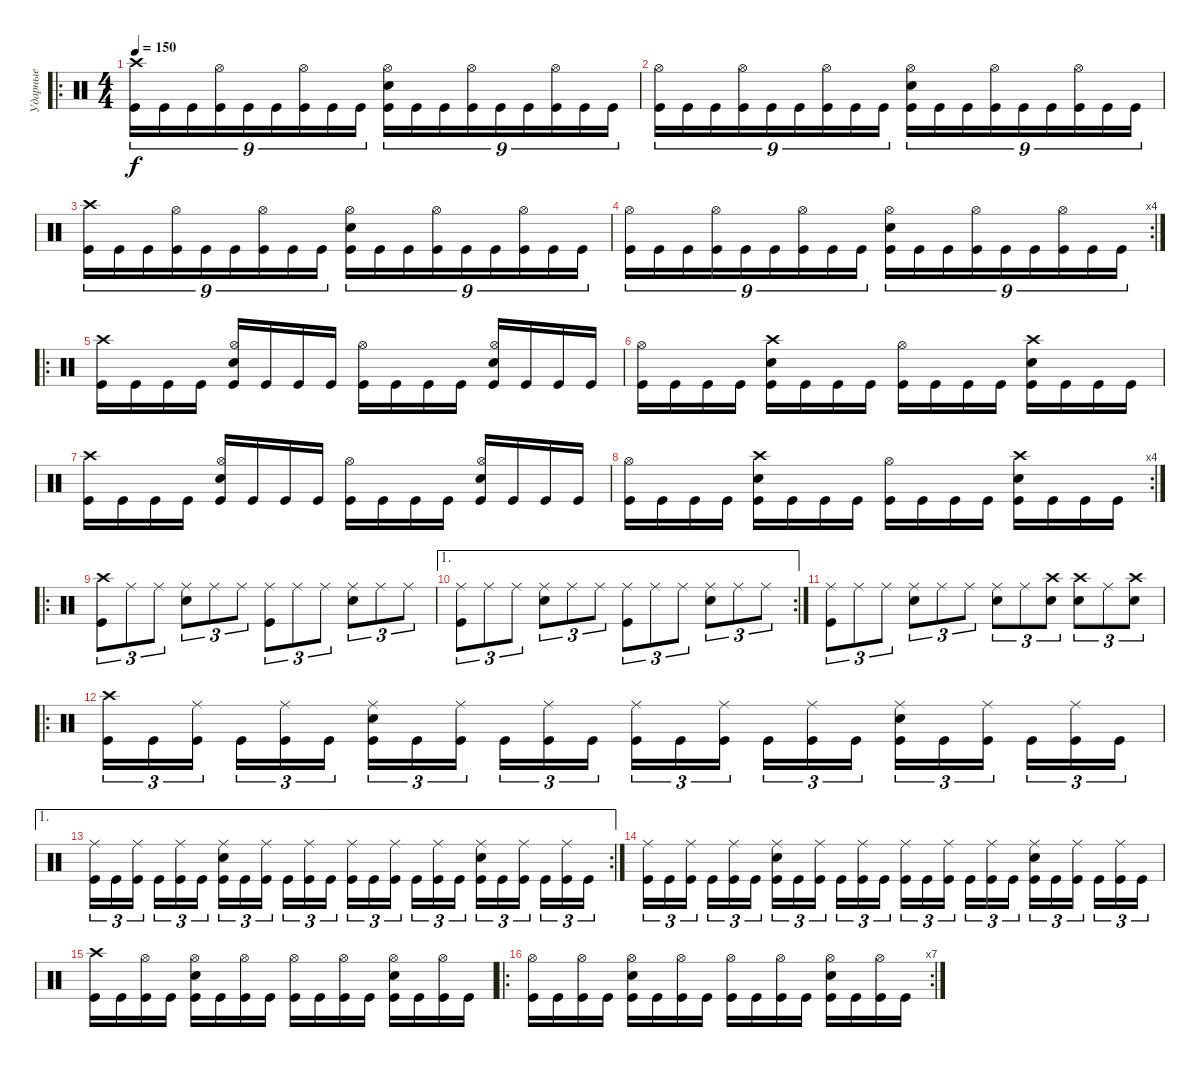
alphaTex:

\track ("Ударные" "Ударные") {instrument percussion}
\staff {score}
\articulation defaults
\ro
\ts (4 4)
\tempo 150
\clef neutral
\ks c
("Crash high (hit)" "Kick (hit)").16{tu (9 8) dy f} "Kick (hit)".16{tu (9 8)} "Kick (hit)".16{tu (9 8)} ("Hi-Hat (open)" "Kick (hit)").16{tu (9 8)} "Kick (hit)".16{tu (9 8)} "Kick (hit)".16{tu (9 8)} ("Hi-Hat (open)" "Kick (hit)").16{tu (9 8)} "Kick (hit)".16{tu (9 8)} "Kick (hit)".16{tu (9 8)} ("Snare (hit) 2" "Hi-Hat (open)" "Kick (hit)").16{tu (9 8)} "Kick (hit)".16{tu (9 8)} "Kick (hit)".16{tu (9 8)} ("Hi-Hat (open)" "Kick (hit)").16{tu (9 8)} "Kick (hit)".16{tu (9 8)} "Kick (hit)".16{tu (9 8)} ("Hi-Hat (open)" "Kick (hit)").16{tu (9 8)} "Kick (hit)".16{tu (9 8)} "Kick (hit)".16{tu (9 8)} |
("Hi-Hat (open)" "Kick (hit)").16{tu (9 8)} "Kick (hit)".16{tu (9 8)} "Kick (hit)".16{tu (9 8)} ("Hi-Hat (open)" "Kick (hit)").16{tu (9 8)} "Kick (hit)".16{tu (9 8)} "Kick (hit)".16{tu (9 8)} ("Hi-Hat (open)" "Kick (hit)").16{tu (9 8)} "Kick (hit)".16{tu (9 8)} "Kick (hit)".16{tu (9 8)} ("Snare (hit) 2" "Hi-Hat (open)" "Kick (hit)").16{tu (9 8)} "Kick (hit)".16{tu (9 8)} "Kick (hit)".16{tu (9 8)} ("Hi-Hat (open)" "Kick (hit)").16{tu (9 8)} "Kick (hit)".16{tu (9 8)} "Kick (hit)".16{tu (9 8)} ("Hi-Hat (open)" "Kick (hit)").16{tu (9 8)} "Kick (hit)".16{tu (9 8)} "Kick (hit)".16{tu (9 8)} |
("Crash high (hit)" "Kick (hit)").16{tu (9 8)} "Kick (hit)".16{tu (9 8)} "Kick (hit)".16{tu (9 8)} ("Hi-Hat (open)" "Kick (hit)").16{tu (9 8)} "Kick (hit)".16{tu (9 8)} "Kick (hit)".16{tu (9 8)} ("Hi-Hat (open)" "Kick (hit)").16{tu (9 8)} "Kick (hit)".16{tu (9 8)} "Kick (hit)".16{tu (9 8)} ("Snare (hit) 2" "Hi-Hat (open)" "Kick (hit)").16{tu (9 8)} "Kick (hit)".16{tu (9 8)} "Kick (hit)".16{tu (9 8)} ("Hi-Hat (open)" "Kick (hit)").16{tu (9 8)} "Kick (hit)".16{tu (9 8)} "Kick (hit)".16{tu (9 8)} ("Hi-Hat (open)" "Kick (hit)").16{tu (9 8)} "Kick (hit)".16{tu (9 8)} "Kick (hit)".16{tu (9 8)} |
\rc 4
("Hi-Hat (open)" "Kick (hit)").16{tu (9 8)} "Kick (hit)".16{tu (9 8)} "Kick (hit)".16{tu (9 8)} ("Hi-Hat (open)" "Kick (hit)").16{tu (9 8)} "Kick (hit)".16{tu (9 8)} "Kick (hit)".16{tu (9 8)} ("Hi-Hat (open)" "Kick (hit)").16{tu (9 8)} "Kick (hit)".16{tu (9 8)} "Kick (hit)".16{tu (9 8)} ("Snare (hit) 2" "Hi-Hat (open)" "Kick (hit)").16{tu (9 8)} "Kick (hit)".16{tu (9 8)} "Kick (hit)".16{tu (9 8)} ("Hi-Hat (open)" "Kick (hit)").16{tu (9 8)} "Kick (hit)".16{tu (9 8)} "Kick (hit)".16{tu (9 8)} ("Hi-Hat (open)" "Kick (hit)").16{tu (9 8)} "Kick (hit)".16{tu (9 8)} "Kick (hit)".16{tu (9 8)} |
\ro
("Crash high (hit)" "Kick (hit)").16 "Kick (hit)".16 "Kick (hit)".16 "Kick (hit)".16 ("Hi-Hat (open)" "Snare (hit) 2" "Kick (hit)").16 "Kick (hit)".16 "Kick (hit)".16 "Kick (hit)".16 ("Hi-Hat (open)" "Kick (hit)").16 "Kick (hit)".16 "Kick (hit)".16 "Kick (hit)".16 ("Hi-Hat (open)" "Snare (hit) 2" "Kick (hit)").16 "Kick (hit)".16 "Kick (hit)".16 "Kick (hit)".16 |
("Hi-Hat (open)" "Kick (hit)").16 "Kick (hit)".16 "Kick (hit)".16 "Kick (hit)".16 ("Crash high (hit)" "Snare (hit) 2" "Kick (hit)").16 "Kick (hit)".16 "Kick (hit)".16 "Kick (hit)".16 ("Hi-Hat (open)" "Kick (hit)").16 "Kick (hit)".16 "Kick (hit)".16 "Kick (hit)".16 ("Crash high (hit)" "Snare (hit) 2" "Kick (hit)").16 "Kick (hit)".16 "Kick (hit)".16 "Kick (hit)".16 |
("Crash high (hit)" "Kick (hit)").16 "Kick (hit)".16 "Kick (hit)".16 "Kick (hit)".16 ("Hi-Hat (open)" "Snare (hit) 2" "Kick (hit)").16 "Kick (hit)".16 "Kick (hit)".16 "Kick (hit)".16 ("Hi-Hat (open)" "Kick (hit)").16 "Kick (hit)".16 "Kick (hit)".16 "Kick (hit)".16 ("Hi-Hat (open)" "Snare (hit) 2" "Kick (hit)").16 "Kick (hit)".16 "Kick (hit)".16 "Kick (hit)".16 |
\rc 4
("Hi-Hat (open)" "Kick (hit)").16 "Kick (hit)".16 "Kick (hit)".16 "Kick (hit)".16 ("Crash high (hit)" "Snare (hit) 2" "Kick (hit)").16 "Kick (hit)".16 "Kick (hit)".16 "Kick (hit)".16 ("Hi-Hat (open)" "Kick (hit)").16 "Kick (hit)".16 "Kick (hit)".16 "Kick (hit)".16 ("Crash high (hit)" "Snare (hit) 2" "Kick (hit)").16 "Kick (hit)".16 "Kick (hit)".16 "Kick (hit)".16 |
\ro
("Crash high (hit)" "Kick (hit)").8{tu (3 2)} "Ride (middle)".8{tu (3 2)} "Ride (middle)".8{tu (3 2)} ("Ride (middle)" "Snare (hit) 2").8{tu (3 2)} "Ride (middle)".8{tu (3 2)} "Ride (middle)".8{tu (3 2)} ("Ride (middle)" "Kick (hit)").8{tu (3 2)} "Ride (middle)".8{tu (3 2)} "Ride (middle)".8{tu (3 2)} ("Ride (middle)" "Snare (hit) 2").8{tu (3 2)} "Ride (middle)".8{tu (3 2)} "Ride (middle)".8{tu (3 2)} |
\ae 1
\rc 2
("Ride (middle)" "Kick (hit)").8{tu (3 2)} "Ride (middle)".8{tu (3 2)} "Ride (middle)".8{tu (3 2)} ("Ride (middle)" "Snare (hit) 2").8{tu (3 2)} "Ride (middle)".8{tu (3 2)} "Ride (middle)".8{tu (3 2)} ("Ride (middle)" "Kick (hit)").8{tu (3 2)} "Ride (middle)".8{tu (3 2)} "Ride (middle)".8{tu (3 2)} ("Ride (middle)" "Snare (hit) 2").8{tu (3 2)} "Ride (middle)".8{tu (3 2)} "Ride (middle)".8{tu (3 2)} |
("Ride (middle)" "Kick (hit)").8{tu (3 2)} "Ride (middle)".8{tu (3 2)} "Ride (middle)".8{tu (3 2)} ("Ride (middle)" "Snare (hit) 2").8{tu (3 2)} "Ride (middle)".8{tu (3 2)} "Ride (middle)".8{tu (3 2)} ("Ride (middle)" "Snare (hit) 2").8{tu (3 2)} "Ride (middle)".8{tu (3 2)} ("Crash high (hit)" "Snare (hit) 2").8{tu (3 2)} ("Crash high (hit)" "Snare (hit) 2").8{tu (3 2)} "Ride (middle)".8{tu (3 2)} ("Crash high (hit)" "Snare (hit) 2").8{tu (3 2)} |
\ro
("Crash high (hit)" "Kick (hit)").16{tu (3 2)} "Kick (hit)".16{tu (3 2)} ("Ride (middle)" "Kick (hit)").16{tu (3 2) beam splitsecondary} "Kick (hit)".16{tu (3 2)} ("Ride (middle)" "Kick (hit)").16{tu (3 2)} "Kick (hit)".16{tu (3 2)} ("Snare (hit) 2" "Ride (middle)" "Kick (hit)").16{tu (3 2)} "Kick (hit)".16{tu (3 2)} ("Ride (middle)" "Kick (hit)").16{tu (3 2) beam splitsecondary} "Kick (hit)".16{tu (3 2)} ("Ride (middle)" "Kick (hit)").16{tu (3 2)} "Kick (hit)".16{tu (3 2)} ("Ride (middle)" "Kick (hit)").16{tu (3 2)} "Kick (hit)".16{tu (3 2)} ("Ride (middle)" "Kick (hit)").16{tu (3 2) beam splitsecondary} "Kick (hit)".16{tu (3 2)} ("Ride (middle)" "Kick (hit)").16{tu (3 2)} "Kick (hit)".16{tu (3 2)} ("Snare (hit) 2" "Ride (middle)" "Kick (hit)").16{tu (3 2)} "Kick (hit)".16{tu (3 2)} ("Ride (middle)" "Kick (hit)").16{tu (3 2) beam splitsecondary} "Kick (hit)".16{tu (3 2)} ("Ride (middle)" "Kick (hit)").16{tu (3 2)} "Kick (hit)".16{tu (3 2)} |
\ae 1
\rc 2
("Ride (middle)" "Kick (hit)").16{tu (3 2)} "Kick (hit)".16{tu (3 2)} ("Ride (middle)" "Kick (hit)").16{tu (3 2) beam splitsecondary} "Kick (hit)".16{tu (3 2)} ("Ride (middle)" "Kick (hit)").16{tu (3 2)} "Kick (hit)".16{tu (3 2)} ("Snare (hit) 2" "Ride (middle)" "Kick (hit)").16{tu (3 2)} "Kick (hit)".16{tu (3 2)} ("Ride (middle)" "Kick (hit)").16{tu (3 2) beam splitsecondary} "Kick (hit)".16{tu (3 2)} ("Ride (middle)" "Kick (hit)").16{tu (3 2)} "Kick (hit)".16{tu (3 2)} ("Ride (middle)" "Kick (hit)").16{tu (3 2)} "Kick (hit)".16{tu (3 2)} ("Ride (middle)" "Kick (hit)").16{tu (3 2) beam splitsecondary} "Kick (hit)".16{tu (3 2)} ("Ride (middle)" "Kick (hit)").16{tu (3 2)} "Kick (hit)".16{tu (3 2)} ("Snare (hit) 2" "Ride (middle)" "Kick (hit)").16{tu (3 2)} "Kick (hit)".16{tu (3 2)} ("Ride (middle)" "Kick (hit)").16{tu (3 2) beam splitsecondary} "Kick (hit)".16{tu (3 2)} ("Ride (middle)" "Kick (hit)").16{tu (3 2)} "Kick (hit)".16{tu (3 2)} |
("Ride (middle)" "Kick (hit)").16{tu (3 2)} "Kick (hit)".16{tu (3 2)} ("Ride (middle)" "Kick (hit)").16{tu (3 2) beam splitsecondary} "Kick (hit)".16{tu (3 2)} ("Ride (middle)" "Kick (hit)").16{tu (3 2)} "Kick (hit)".16{tu (3 2)} ("Snare (hit) 2" "Ride (middle)" "Kick (hit)").16{tu (3 2)} "Kick (hit)".16{tu (3 2)} ("Ride (middle)" "Kick (hit)").16{tu (3 2) beam splitsecondary} "Kick (hit)".16{tu (3 2)} ("Ride (middle)" "Kick (hit)").16{tu (3 2)} "Kick (hit)".16{tu (3 2)} ("Ride (middle)" "Kick (hit)").16{tu (3 2)} "Kick (hit)".16{tu (3 2)} ("Ride (middle)" "Kick (hit)").16{tu (3 2) beam splitsecondary} "Kick (hit)".16{tu (3 2)} ("Ride (middle)" "Kick (hit)").16{tu (3 2)} "Kick (hit)".16{tu (3 2)} ("Snare (hit) 2" "Ride (middle)" "Kick (hit)").16{tu (3 2)} "Kick (hit)".16{tu (3 2)} ("Ride (middle)" "Kick (hit)").16{tu (3 2) beam splitsecondary} "Kick (hit)".16{tu (3 2)} ("Ride (middle)" "Kick (hit)").16{tu (3 2)} "Kick (hit)".16{tu (3 2)} |
("Crash high (hit)" "Kick (hit)").16 "Kick (hit)".16 ("Hi-Hat (open)" "Kick (hit)").16 "Kick (hit)".16 ("Snare (hit) 2" "Hi-Hat (open)" "Kick (hit)").16 "Kick (hit)".16 ("Hi-Hat (open)" "Kick (hit)").16 "Kick (hit)".16 ("Hi-Hat (open)" "Kick (hit)").16 "Kick (hit)".16 ("Hi-Hat (open)" "Kick (hit)").16 "Kick (hit)".16 ("Snare (hit) 2" "Hi-Hat (open)" "Kick (hit)").16 "Kick (hit)".16 ("Hi-Hat (open)" "Kick (hit)").16 "Kick (hit)".16 |
\ro
\rc 7
("Hi-Hat (open)" "Kick (hit)").16 "Kick (hit)".16 ("Hi-Hat (open)" "Kick (hit)").16 "Kick (hit)".16 ("Snare (hit) 2" "Hi-Hat (open)" "Kick (hit)").16 "Kick (hit)".16 ("Hi-Hat (open)" "Kick (hit)").16 "Kick (hit)".16 ("Hi-Hat (open)" "Kick (hit)").16 "Kick (hit)".16 ("Hi-Hat (open)" "Kick (hit)").16 "Kick (hit)".16 ("Snare (hit) 2" "Hi-Hat (open)" "Kick (hit)").16 "Kick (hit)".16 ("Hi-Hat (open)" "Kick (hit)").16 "Kick (hit)".16
